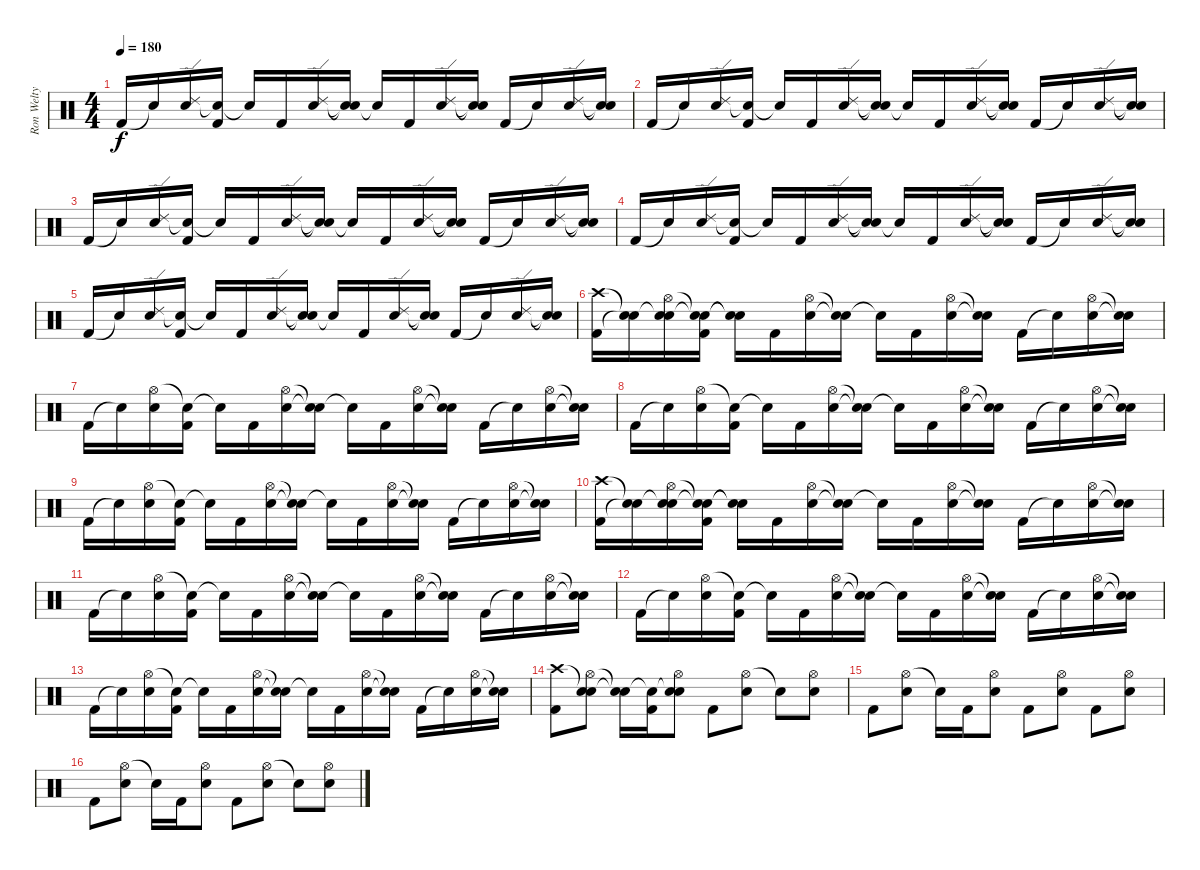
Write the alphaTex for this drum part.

\track ("Ron Welty (drums)" "Ron Welty ") {instrument percussion}
\staff {score}
\articulation defaults
\ts (4 4)
\tempo 180
\clef neutral
\ks c "Kick (hit) 2".16{dy f} "Snare (hit)"{t}.16
("Ride (edge) 2" "Electric Snare (hit)").16 ("Snare (hit)"{t} "Kick (hit) 2").16 "Snare (hit)"{t}.16 "Kick (hit) 2".16 ("Ride (edge) 2" "Electric Snare (hit)").16 ("Snare (hit)"{t} "Snare (hit)"{t}).16 "Snare (hit)"{t}.16 "Kick (hit) 2".16 ("Ride (edge) 2" "Electric Snare (hit)").16 ("Snare (hit)"{t} "Snare (hit)"{t}).16 "Kick (hit) 2".16 "Snare (hit)"{t}.16 ("Ride (edge) 2" "Electric Snare (hit)").16 ("Snare (hit)"{t} "Snare (hit)"{t}).16 |
"Kick (hit) 2".16 "Snare (hit)"{t}.16 ("Ride (edge) 2" "Electric Snare (hit)").16 ("Snare (hit)"{t} "Kick (hit) 2").16 "Snare (hit)"{t}.16 "Kick (hit) 2".16 ("Ride (edge) 2" "Electric Snare (hit)").16 ("Snare (hit)"{t} "Snare (hit)"{t}).16 "Snare (hit)"{t}.16 "Kick (hit) 2".16 ("Ride (edge) 2" "Electric Snare (hit)").16 ("Snare (hit)"{t} "Snare (hit)"{t}).16 "Kick (hit) 2".16 "Snare (hit)"{t}.16 ("Ride (edge) 2" "Electric Snare (hit)").16 ("Snare (hit)"{t} "Snare (hit)"{t}).16 |
"Kick (hit) 2".16 "Snare (hit)"{t}.16 ("Ride (edge) 2" "Electric Snare (hit)").16 ("Snare (hit)"{t} "Kick (hit) 2").16 "Snare (hit)"{t}.16 "Kick (hit) 2".16 ("Ride (edge) 2" "Electric Snare (hit)").16 ("Snare (hit)"{t} "Snare (hit)"{t}).16 "Snare (hit)"{t}.16 "Kick (hit) 2".16 ("Ride (edge) 2" "Electric Snare (hit)").16 ("Snare (hit)"{t} "Snare (hit)"{t}).16 "Kick (hit) 2".16 "Snare (hit)"{t}.16 ("Ride (edge) 2" "Electric Snare (hit)").16 ("Snare (hit)"{t} "Snare (hit)"{t}).16 |
"Kick (hit) 2".16 "Snare (hit)"{t}.16 ("Ride (edge) 2" "Electric Snare (hit)").16 ("Snare (hit)"{t} "Kick (hit) 2").16 "Snare (hit)"{t}.16 "Kick (hit) 2".16 ("Ride (edge) 2" "Electric Snare (hit)").16 ("Snare (hit)"{t} "Snare (hit)"{t}).16 "Snare (hit)"{t}.16 "Kick (hit) 2".16 ("Ride (edge) 2" "Electric Snare (hit)").16 ("Snare (hit)"{t} "Snare (hit)"{t}).16 "Kick (hit) 2".16 "Snare (hit)"{t}.16 ("Ride (edge) 2" "Electric Snare (hit)").16 ("Snare (hit)"{t} "Snare (hit)"{t}).16 |
"Kick (hit) 2".16 "Snare (hit)"{t}.16 ("Ride (edge) 2" "Electric Snare (hit)").16 ("Snare (hit)"{t} "Kick (hit) 2").16 "Snare (hit)"{t}.16 "Kick (hit) 2".16 ("Ride (edge) 2" "Electric Snare (hit)").16 ("Snare (hit)"{t} "Snare (hit)"{t}).16 "Snare (hit)"{t}.16 "Kick (hit) 2".16 ("Ride (edge) 2" "Electric Snare (hit)").16 ("Snare (hit)"{t} "Snare (hit)"{t}).16 "Kick (hit) 2".16 "Snare (hit)"{t}.16 ("Ride (edge) 2" "Electric Snare (hit)").16 ("Snare (hit)"{t} "Snare (hit)"{t}).16 |
("Crash high (hit)" "Kick (hit) 2").16 ("Snare (hit)"{t} "Snare (hit)"{t}).16 ("Snare (hit)"{t} "Hi-Hat (open)" "Electric Snare (hit)").16 ("Snare (hit)"{t} "Snare (hit)"{t} "Kick (hit) 2").16 ("Snare (hit)"{t} "Snare (hit)"{t}).16 "Kick (hit) 2".16 ("Hi-Hat (open)" "Electric Snare (hit)").16 ("Snare (hit)"{t} "Snare (hit)"{t}).16 "Snare (hit)"{t}.16 "Kick (hit) 2".16 ("Hi-Hat (open)" "Electric Snare (hit)").16 ("Snare (hit)"{t} "Snare (hit)"{t}).16 "Kick (hit) 2".16 "Snare (hit)"{t}.16 ("Hi-Hat (open)" "Electric Snare (hit)").16 ("Snare (hit)"{t} "Snare (hit)"{t}).16 |
"Kick (hit) 2".16 "Snare (hit)"{t}.16 ("Hi-Hat (open)" "Electric Snare (hit)").16 ("Snare (hit)"{t} "Kick (hit) 2").16 "Snare (hit)"{t}.16 "Kick (hit) 2".16 ("Hi-Hat (open)" "Electric Snare (hit)").16 ("Snare (hit)"{t} "Snare (hit)"{t}).16 "Snare (hit)"{t}.16 "Kick (hit) 2".16 ("Hi-Hat (open)" "Electric Snare (hit)").16 ("Snare (hit)"{t} "Snare (hit)"{t}).16 "Kick (hit) 2".16 "Snare (hit)"{t}.16 ("Hi-Hat (open)" "Electric Snare (hit)").16 ("Snare (hit)"{t} "Snare (hit)"{t}).16 |
"Kick (hit) 2".16 "Snare (hit)"{t}.16 ("Hi-Hat (open)" "Electric Snare (hit)").16 ("Snare (hit)"{t} "Kick (hit) 2").16 "Snare (hit)"{t}.16 "Kick (hit) 2".16 ("Hi-Hat (open)" "Electric Snare (hit)").16 ("Snare (hit)"{t} "Snare (hit)"{t}).16 "Snare (hit)"{t}.16 "Kick (hit) 2".16 ("Hi-Hat (open)" "Electric Snare (hit)").16 ("Snare (hit)"{t} "Snare (hit)"{t}).16 "Kick (hit) 2".16 "Snare (hit)"{t}.16 ("Hi-Hat (open)" "Electric Snare (hit)").16 ("Snare (hit)"{t} "Snare (hit)"{t}).16 |
"Kick (hit) 2".16 "Snare (hit)"{t}.16 ("Hi-Hat (open)" "Electric Snare (hit)").16 ("Snare (hit)"{t} "Kick (hit) 2").16 "Snare (hit)"{t}.16 "Kick (hit) 2".16 ("Hi-Hat (open)" "Electric Snare (hit)").16 ("Snare (hit)"{t} "Snare (hit)"{t}).16 "Snare (hit)"{t}.16 "Kick (hit) 2".16 ("Hi-Hat (open)" "Electric Snare (hit)").16 ("Snare (hit)"{t} "Snare (hit)"{t}).16 "Kick (hit) 2".16 "Snare (hit)"{t}.16 ("Hi-Hat (open)" "Electric Snare (hit)").16 ("Snare (hit)"{t} "Snare (hit)"{t}).16 |
("Crash high (hit)" "Kick (hit) 2").16 ("Snare (hit)"{t} "Snare (hit)"{t}).16 ("Snare (hit)"{t} "Hi-Hat (open)" "Electric Snare (hit)").16 ("Snare (hit)"{t} "Snare (hit)"{t} "Kick (hit) 2").16 ("Snare (hit)"{t} "Snare (hit)"{t}).16 "Kick (hit) 2".16 ("Hi-Hat (open)" "Electric Snare (hit)").16 ("Snare (hit)"{t} "Snare (hit)"{t}).16 "Snare (hit)"{t}.16 "Kick (hit) 2".16 ("Hi-Hat (open)" "Electric Snare (hit)").16 ("Snare (hit)"{t} "Snare (hit)"{t}).16 "Kick (hit) 2".16 "Snare (hit)"{t}.16 ("Hi-Hat (open)" "Electric Snare (hit)").16 ("Snare (hit)"{t} "Snare (hit)"{t}).16 |
"Kick (hit) 2".16 "Snare (hit)"{t}.16 ("Hi-Hat (open)" "Electric Snare (hit)").16 ("Snare (hit)"{t} "Kick (hit) 2").16 "Snare (hit)"{t}.16 "Kick (hit) 2".16 ("Hi-Hat (open)" "Electric Snare (hit)").16 ("Snare (hit)"{t} "Snare (hit)"{t}).16 "Snare (hit)"{t}.16 "Kick (hit) 2".16 ("Hi-Hat (open)" "Electric Snare (hit)").16 ("Snare (hit)"{t} "Snare (hit)"{t}).16 "Kick (hit) 2".16 "Snare (hit)"{t}.16 ("Hi-Hat (open)" "Electric Snare (hit)").16 ("Snare (hit)"{t} "Snare (hit)"{t}).16 |
"Kick (hit) 2".16 "Snare (hit)"{t}.16 ("Hi-Hat (open)" "Electric Snare (hit)").16 ("Snare (hit)"{t} "Kick (hit) 2").16 "Snare (hit)"{t}.16 "Kick (hit) 2".16 ("Hi-Hat (open)" "Electric Snare (hit)").16 ("Snare (hit)"{t} "Snare (hit)"{t}).16 "Snare (hit)"{t}.16 "Kick (hit) 2".16 ("Hi-Hat (open)" "Electric Snare (hit)").16 ("Snare (hit)"{t} "Snare (hit)"{t}).16 "Kick (hit) 2".16 "Snare (hit)"{t}.16 ("Hi-Hat (open)" "Electric Snare (hit)").16 ("Snare (hit)"{t} "Snare (hit)"{t}).16 |
"Kick (hit) 2".16 "Snare (hit)"{t}.16 ("Hi-Hat (open)" "Electric Snare (hit)").16 ("Snare (hit)"{t} "Kick (hit) 2").16 "Snare (hit)"{t}.16 "Kick (hit) 2".16 ("Hi-Hat (open)" "Electric Snare (hit)").16 ("Snare (hit)"{t} "Snare (hit)"{t}).16 "Snare (hit)"{t}.16 "Kick (hit) 2".16 ("Hi-Hat (open)" "Electric Snare (hit)").16 ("Snare (hit)"{t} "Snare (hit)"{t}).16 "Kick (hit) 2".16 "Snare (hit)"{t}.16 ("Hi-Hat (open)" "Electric Snare (hit)").16 ("Snare (hit)"{t} "Snare (hit)"{t}).16 |
("Crash high (hit)" "Kick (hit) 2").8 ("Snare (hit)"{t} "Hi-Hat (open)" "Electric Snare (hit)").8 ("Snare (hit)"{t} "Snare (hit)"{t}).16 ("Snare (hit)"{t} "Kick (hit) 2").16 ("Snare (hit)"{t} "Hi-Hat (open)" "Electric Snare (hit)").8 "Kick (hit) 2".8 ("Hi-Hat (open)" "Electric Snare (hit)").8 "Snare (hit)"{t}.8 ("Hi-Hat (open)" "Electric Snare (hit)").8 |
"Kick (hit) 2".8 ("Hi-Hat (open)" "Electric Snare (hit)").8 "Snare (hit)"{t}.16 "Kick (hit) 2".16 ("Hi-Hat (open)" "Electric Snare (hit)").8 "Kick (hit) 2".8 ("Hi-Hat (open)" "Electric Snare (hit)").8 "Kick (hit) 2".8 ("Hi-Hat (open)" "Electric Snare (hit)").8 |
"Kick (hit) 2".8 ("Hi-Hat (open)" "Electric Snare (hit)").8 "Snare (hit)"{t}.16 "Kick (hit) 2".16 ("Hi-Hat (open)" "Electric Snare (hit)").8 "Kick (hit) 2".8 ("Hi-Hat (open)" "Electric Snare (hit)").8 "Snare (hit)"{t}.8 ("Hi-Hat (open)" "Electric Snare (hit)").8
